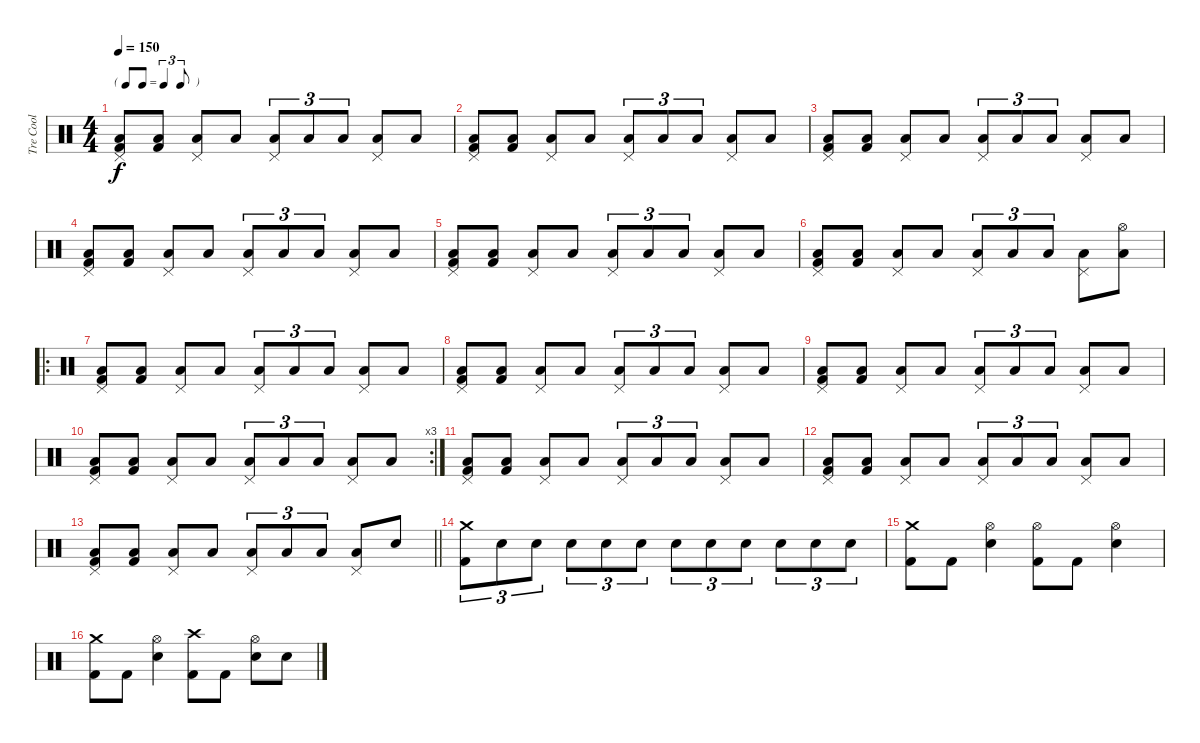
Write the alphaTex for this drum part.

\track ("Tre Cool" "Tre Cool") {instrument percussion}
\staff {score}
\articulation defaults
\ts (4 4)
\tf triplet8th
\tempo 150
\clef neutral
\ks c
("Pedal Hi-Hat (hit)" "Low Floor Tom (hit)" "Kick (hit) 2").8{dy f} ("Low Floor Tom (hit)" "Kick (hit) 2").8 ("Pedal Hi-Hat (hit)" "Low Tom (hit)").8 "Low Floor Tom (hit)".8 ("Pedal Hi-Hat (hit)" "Low Floor Tom (hit)").8{tu (3 2)} "Low Floor Tom (hit)".8{tu (3 2)} "Low Floor Tom (hit)".8{tu (3 2)} ("Pedal Hi-Hat (hit)" "Low Tom (hit)").8 "Low Floor Tom (hit)".8 |
("Pedal Hi-Hat (hit)" "Low Floor Tom (hit)" "Kick (hit) 2").8 ("Low Floor Tom (hit)" "Kick (hit) 2").8 ("Pedal Hi-Hat (hit)" "Low Tom (hit)").8 "Low Tom (hit)".8 ("Pedal Hi-Hat (hit)" "Low Floor Tom (hit)").8{tu (3 2)} "Low Floor Tom (hit)".8{tu (3 2)} "Low Floor Tom (hit)".8{tu (3 2)} ("Pedal Hi-Hat (hit)" "Low Tom (hit)").8 "Low Floor Tom (hit)".8 |
("Pedal Hi-Hat (hit)" "Low Floor Tom (hit)" "Kick (hit) 2").8 ("Low Floor Tom (hit)" "Kick (hit) 2").8 ("Pedal Hi-Hat (hit)" "Low Tom (hit)").8 "Low Floor Tom (hit)".8 ("Pedal Hi-Hat (hit)" "Low Floor Tom (hit)").8{tu (3 2)} "Low Floor Tom (hit)".8{tu (3 2)} "Low Floor Tom (hit)".8{tu (3 2)} ("Pedal Hi-Hat (hit)" "Low Tom (hit)").8 "Low Floor Tom (hit)".8 |
("Pedal Hi-Hat (hit)" "Low Floor Tom (hit)" "Kick (hit) 2").8 ("Low Floor Tom (hit)" "Kick (hit) 2").8 ("Pedal Hi-Hat (hit)" "Low Tom (hit)").8 "Low Tom (hit)".8 ("Pedal Hi-Hat (hit)" "Low Floor Tom (hit)").8{tu (3 2)} "Low Floor Tom (hit)".8{tu (3 2)} "Low Floor Tom (hit)".8{tu (3 2)} ("Pedal Hi-Hat (hit)" "Low Tom (hit)").8 "Low Floor Tom (hit)".8 |
("Pedal Hi-Hat (hit)" "Low Floor Tom (hit)" "Kick (hit) 2").8 ("Low Floor Tom (hit)" "Kick (hit) 2").8 ("Pedal Hi-Hat (hit)" "Low Tom (hit)").8 "Low Floor Tom (hit)".8 ("Pedal Hi-Hat (hit)" "Low Floor Tom (hit)").8{tu (3 2)} "Low Floor Tom (hit)".8{tu (3 2)} "Low Floor Tom (hit)".8{tu (3 2)} ("Pedal Hi-Hat (hit)" "Low Tom (hit)").8 "Low Floor Tom (hit)".8 |
("Pedal Hi-Hat (hit)" "Low Floor Tom (hit)" "Kick (hit) 2").8 ("Low Floor Tom (hit)" "Kick (hit) 2").8 ("Pedal Hi-Hat (hit)" "Low Tom (hit)").8 "Low Tom (hit)".8 ("Pedal Hi-Hat (hit)" "Low Floor Tom (hit)").8{tu (3 2)} "Low Floor Tom (hit)".8{tu (3 2)} "Low Floor Tom (hit)".8{tu (3 2)} ("Pedal Hi-Hat (hit)" "Low Tom (hit)").8 ("Hi-Hat (open)" "Low Floor Tom (hit)").8 |
\ro
("Pedal Hi-Hat (hit)" "Low Floor Tom (hit)" "Kick (hit) 2").8 ("Low Floor Tom (hit)" "Kick (hit) 2").8 ("Pedal Hi-Hat (hit)" "Low Tom (hit)").8 "Low Floor Tom (hit)".8 ("Pedal Hi-Hat (hit)" "Low Floor Tom (hit)").8{tu (3 2)} "Low Floor Tom (hit)".8{tu (3 2)} "Low Floor Tom (hit)".8{tu (3 2)} ("Pedal Hi-Hat (hit)" "Low Tom (hit)").8 "Low Floor Tom (hit)".8 |
("Pedal Hi-Hat (hit)" "Low Floor Tom (hit)" "Kick (hit) 2").8 ("Low Floor Tom (hit)" "Kick (hit) 2").8 ("Pedal Hi-Hat (hit)" "Low Tom (hit)").8 "Low Tom (hit)".8 ("Pedal Hi-Hat (hit)" "Low Floor Tom (hit)").8{tu (3 2)} "Low Floor Tom (hit)".8{tu (3 2)} "Low Floor Tom (hit)".8{tu (3 2)} ("Pedal Hi-Hat (hit)" "Low Tom (hit)").8 "Low Floor Tom (hit)".8 |
("Pedal Hi-Hat (hit)" "Low Floor Tom (hit)" "Kick (hit) 2").8 ("Low Floor Tom (hit)" "Kick (hit) 2").8 ("Pedal Hi-Hat (hit)" "Low Tom (hit)").8 "Low Floor Tom (hit)".8 ("Pedal Hi-Hat (hit)" "Low Floor Tom (hit)").8{tu (3 2)} "Low Floor Tom (hit)".8{tu (3 2)} "Low Floor Tom (hit)".8{tu (3 2)} ("Pedal Hi-Hat (hit)" "Low Tom (hit)").8 "Low Floor Tom (hit)".8 |
\rc 3
("Pedal Hi-Hat (hit)" "Low Floor Tom (hit)" "Kick (hit) 2").8 ("Low Floor Tom (hit)" "Kick (hit) 2").8 ("Pedal Hi-Hat (hit)" "Low Tom (hit)").8 "Low Tom (hit)".8 ("Pedal Hi-Hat (hit)" "Low Floor Tom (hit)").8{tu (3 2)} "Low Floor Tom (hit)".8{tu (3 2)} "Low Floor Tom (hit)".8{tu (3 2)} ("Pedal Hi-Hat (hit)" "Low Tom (hit)").8 "Low Floor Tom (hit)".8 |
("Pedal Hi-Hat (hit)" "Low Floor Tom (hit)" "Kick (hit) 2").8 ("Low Floor Tom (hit)" "Kick (hit) 2").8 ("Pedal Hi-Hat (hit)" "Low Tom (hit)").8 "Low Floor Tom (hit)".8 ("Pedal Hi-Hat (hit)" "Low Floor Tom (hit)").8{tu (3 2)} "Low Floor Tom (hit)".8{tu (3 2)} "Low Floor Tom (hit)".8{tu (3 2)} ("Pedal Hi-Hat (hit)" "Low Tom (hit)").8 "Low Floor Tom (hit)".8 |
("Pedal Hi-Hat (hit)" "Low Floor Tom (hit)" "Kick (hit) 2").8 ("Low Floor Tom (hit)" "Kick (hit) 2").8 ("Pedal Hi-Hat (hit)" "Low Tom (hit)").8 "Low Tom (hit)".8 ("Pedal Hi-Hat (hit)" "Low Floor Tom (hit)").8{tu (3 2)} "Low Floor Tom (hit)".8{tu (3 2)} "Low Floor Tom (hit)".8{tu (3 2)} ("Pedal Hi-Hat (hit)" "Low Tom (hit)").8 "Low Floor Tom (hit)".8 |
\barLineRight lightlight
("Pedal Hi-Hat (hit)" "Low Floor Tom (hit)" "Kick (hit) 2").8 ("Low Floor Tom (hit)" "Kick (hit) 2").8 ("Pedal Hi-Hat (hit)" "Low Tom (hit)").8 "Low Floor Tom (hit)".8 ("Pedal Hi-Hat (hit)" "Low Floor Tom (hit)").8{tu (3 2)} "Low Floor Tom (hit)".8{tu (3 2)} "Low Floor Tom (hit)".8{tu (3 2)} ("Pedal Hi-Hat (hit)" "Low Tom (hit)").8 "Electric Snare (hit)".8 |
("Crash medium (hit)" "Kick (hit) 2").8{tu (3 2)} "Electric Snare (hit)".8{tu (3 2)} "Electric Snare (hit)".8{tu (3 2)} "Electric Snare (hit)".8{tu (3 2)} "Electric Snare (hit)".8{tu (3 2)} "Electric Snare (hit)".8{tu (3 2)} "Electric Snare (hit)".8{tu (3 2)} "Electric Snare (hit)".8{tu (3 2)} "Electric Snare (hit)".8{tu (3 2)} "Electric Snare (hit)".8{tu (3 2)} "Electric Snare (hit)".8{tu (3 2)} "Electric Snare (hit)".8{tu (3 2)} |
("Crash medium (hit)" "Kick (hit) 2").8 "Kick (hit) 2".8 ("Hi-Hat (open)" "Electric Snare (hit)").4 ("Hi-Hat (open)" "Kick (hit) 2").8 "Kick (hit) 2".8 ("Hi-Hat (open)" "Electric Snare (hit)").4 |
("Crash medium (hit)" "Kick (hit) 2").8 "Kick (hit) 2".8 ("Hi-Hat (open)" "Electric Snare (hit)").4 ("Crash high (hit)" "Kick (hit) 2").8 "Kick (hit) 2".8 ("Hi-Hat (open)" "Electric Snare (hit)").8 "Electric Snare (hit)".8
